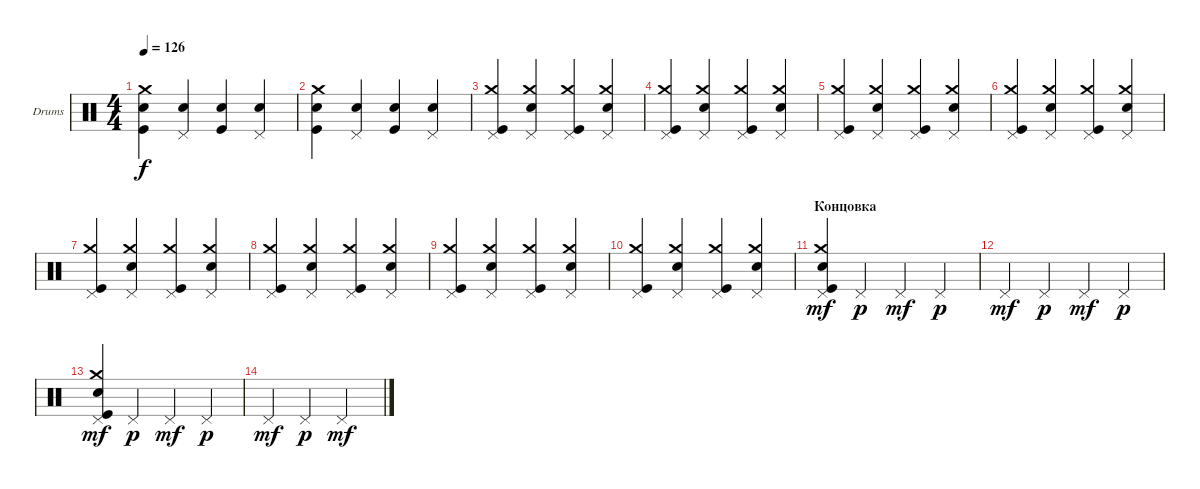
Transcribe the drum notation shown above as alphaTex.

\defaultSystemsLayout 4
\bracketExtendMode groupsimilarinstruments
\firstSystemTrackNameOrientation horizontal
\otherSystemsTrackNameOrientation horizontal
\track ("Е. Кулаков" "Drums") {instrument percussion}
\staff {score}
\articulation defaults
\ts (4 4)
\tempo 126
\clef neutral
\ks c
("Snare (hit) 2" "Kick (hit)" "Crash medium (hit)").4{dy f} ("Pedal Hi-Hat (hit)" "Snare (hit) 2").4 ("Snare (hit) 2" "Kick (hit)").4 ("Pedal Hi-Hat (hit)" "Snare (hit) 2").4 |
("Snare (hit) 2" "Kick (hit)" "Crash medium (hit)").4 ("Pedal Hi-Hat (hit)" "Snare (hit) 2").4 ("Snare (hit) 2" "Kick (hit)").4 ("Pedal Hi-Hat (hit)" "Snare (hit) 2").4 |
("Kick (hit)" "Crash medium (hit)" "Pedal Hi-Hat (hit)").4 ("Snare (hit) 2" "Crash medium (hit)" "Pedal Hi-Hat (hit)").4 ("Kick (hit)" "Crash medium (hit)" "Pedal Hi-Hat (hit)").4 ("Snare (hit) 2" "Crash medium (hit)" "Pedal Hi-Hat (hit)").4 |
("Kick (hit)" "Crash medium (hit)" "Pedal Hi-Hat (hit)").4 ("Snare (hit) 2" "Crash medium (hit)" "Pedal Hi-Hat (hit)").4 ("Kick (hit)" "Crash medium (hit)" "Pedal Hi-Hat (hit)").4 ("Snare (hit) 2" "Crash medium (hit)" "Pedal Hi-Hat (hit)").4 |
("Kick (hit)" "Crash medium (hit)" "Pedal Hi-Hat (hit)").4 ("Snare (hit) 2" "Crash medium (hit)" "Pedal Hi-Hat (hit)").4 ("Kick (hit)" "Crash medium (hit)" "Pedal Hi-Hat (hit)").4 ("Snare (hit) 2" "Crash medium (hit)" "Pedal Hi-Hat (hit)").4 |
("Kick (hit)" "Crash medium (hit)" "Pedal Hi-Hat (hit)").4 ("Snare (hit) 2" "Crash medium (hit)" "Pedal Hi-Hat (hit)").4 ("Kick (hit)" "Crash medium (hit)" "Pedal Hi-Hat (hit)").4 ("Snare (hit) 2" "Crash medium (hit)" "Pedal Hi-Hat (hit)").4 |
("Kick (hit)" "Crash medium (hit)" "Pedal Hi-Hat (hit)").4 ("Snare (hit) 2" "Crash medium (hit)" "Pedal Hi-Hat (hit)").4 ("Kick (hit)" "Crash medium (hit)" "Pedal Hi-Hat (hit)").4 ("Snare (hit) 2" "Crash medium (hit)" "Pedal Hi-Hat (hit)").4 |
("Kick (hit)" "Crash medium (hit)" "Pedal Hi-Hat (hit)").4 ("Snare (hit) 2" "Crash medium (hit)" "Pedal Hi-Hat (hit)").4 ("Kick (hit)" "Crash medium (hit)" "Pedal Hi-Hat (hit)").4 ("Snare (hit) 2" "Crash medium (hit)" "Pedal Hi-Hat (hit)").4 |
("Kick (hit)" "Crash medium (hit)" "Pedal Hi-Hat (hit)").4 ("Snare (hit) 2" "Crash medium (hit)" "Pedal Hi-Hat (hit)").4 ("Kick (hit)" "Crash medium (hit)" "Pedal Hi-Hat (hit)").4 ("Snare (hit) 2" "Crash medium (hit)" "Pedal Hi-Hat (hit)").4 |
("Kick (hit)" "Crash medium (hit)" "Pedal Hi-Hat (hit)").4 ("Snare (hit) 2" "Crash medium (hit)" "Pedal Hi-Hat (hit)").4 ("Kick (hit)" "Crash medium (hit)" "Pedal Hi-Hat (hit)").4 ("Snare (hit) 2" "Crash medium (hit)" "Pedal Hi-Hat (hit)").4 |
\section ("" "Концовка")
("Snare (hit) 2" "Kick (hit)" "Crash medium (hit)" "Pedal Hi-Hat (hit)").4{dy mf} "Pedal Hi-Hat (hit)".4{dy p} "Pedal Hi-Hat (hit)".4{dy mf} "Pedal Hi-Hat (hit)".4{dy p} |
"Pedal Hi-Hat (hit)".4{dy mf} "Pedal Hi-Hat (hit)".4{dy p} "Pedal Hi-Hat (hit)".4{dy mf} "Pedal Hi-Hat (hit)".4{dy p} |
("Snare (hit) 2" "Kick (hit)" "Crash medium (hit)" "Pedal Hi-Hat (hit)").4{dy mf} "Pedal Hi-Hat (hit)".4{dy p} "Pedal Hi-Hat (hit)".4{dy mf} "Pedal Hi-Hat (hit)".4{dy p} |
"Pedal Hi-Hat (hit)".4{dy mf} "Pedal Hi-Hat (hit)".4{dy p} "Pedal Hi-Hat (hit)".2{dy mf}
